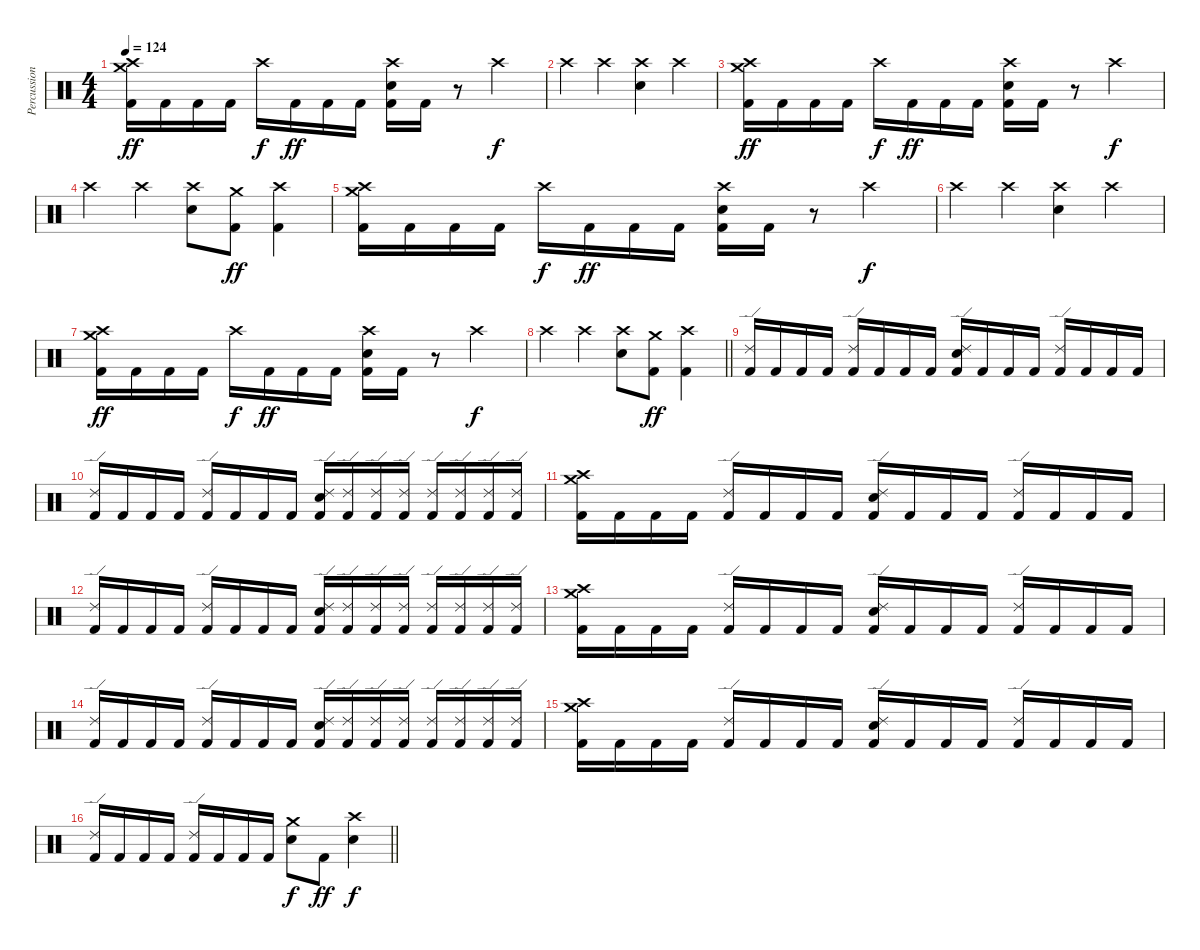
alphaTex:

\track ("Percussion" "Percussion") {instrument percussion}
\staff {score}
\articulation defaults
\ts (4 4)
\tempo 124
\clef neutral
\ks c
("Crash medium (hit)" "Crash high (hit)" "Kick (hit) 2").16{dy ff} "Kick (hit) 2".16 "Kick (hit) 2".16 "Kick (hit) 2".16 "Crash high (hit)".16{dy f} "Kick (hit) 2".16{dy ff} "Kick (hit) 2".16 "Kick (hit) 2".16 ("Crash high (hit)" "Electric Snare (hit)" "Kick (hit) 2").16 "Kick (hit) 2".16 r.8 "Crash high (hit)".4{dy f} |
"Crash high (hit)".4 "Crash high (hit)".4 ("Crash high (hit)" "Electric Snare (hit)").4 "Crash high (hit)".4 |
("Crash medium (hit)" "Crash high (hit)" "Kick (hit) 2").16{dy ff} "Kick (hit) 2".16 "Kick (hit) 2".16 "Kick (hit) 2".16 "Crash high (hit)".16{dy f} "Kick (hit) 2".16{dy ff} "Kick (hit) 2".16 "Kick (hit) 2".16 ("Crash high (hit)" "Electric Snare (hit)" "Kick (hit) 2").16 "Kick (hit) 2".16 r.8 "Crash high (hit)".4{dy f} |
"Crash high (hit)".4 "Crash high (hit)".4 ("Crash high (hit)" "Electric Snare (hit)").8 ("Crash medium (hit)" "Kick (hit) 2").8{dy ff} ("Crash high (hit)" "Kick (hit) 2").4 |
("Crash medium (hit)" "Crash high (hit)" "Kick (hit) 2").16 "Kick (hit) 2".16 "Kick (hit) 2".16 "Kick (hit) 2".16 "Crash high (hit)".16{dy f} "Kick (hit) 2".16{dy ff} "Kick (hit) 2".16 "Kick (hit) 2".16 ("Crash high (hit)" "Electric Snare (hit)" "Kick (hit) 2").16 "Kick (hit) 2".16 r.8 "Crash high (hit)".4{dy f} |
"Crash high (hit)".4 "Crash high (hit)".4 ("Crash high (hit)" "Electric Snare (hit)").4 "Crash high (hit)".4 |
("Crash medium (hit)" "Crash high (hit)" "Kick (hit) 2").16{dy ff} "Kick (hit) 2".16 "Kick (hit) 2".16 "Kick (hit) 2".16 "Crash high (hit)".16{dy f} "Kick (hit) 2".16{dy ff} "Kick (hit) 2".16 "Kick (hit) 2".16 ("Crash high (hit)" "Electric Snare (hit)" "Kick (hit) 2").16 "Kick (hit) 2".16 r.8 "Crash high (hit)".4{dy f} |
\barLineRight lightlight "Crash high (hit)".4 "Crash high (hit)".4
("Crash high (hit)" "Electric Snare (hit)").8 ("Crash medium (hit)" "Kick (hit) 2").8{dy ff} ("Crash high (hit)" "Kick (hit) 2").4 |
("Ride (edge) 2" "Kick (hit) 2").16 "Kick (hit) 2".16 "Kick (hit) 2".16 "Kick (hit) 2".16 ("Ride (edge) 2" "Kick (hit) 2").16 "Kick (hit) 2".16 "Kick (hit) 2".16 "Kick (hit) 2".16 ("Ride (edge) 2" "Electric Snare (hit)" "Kick (hit) 2").16 "Kick (hit) 2".16 "Kick (hit) 2".16 "Kick (hit) 2".16 ("Ride (edge) 2" "Kick (hit) 2").16 "Kick (hit) 2".16 "Kick (hit) 2".16 "Kick (hit) 2".16 |
("Ride (edge) 2" "Kick (hit) 2").16 "Kick (hit) 2".16 "Kick (hit) 2".16 "Kick (hit) 2".16 ("Ride (edge) 2" "Kick (hit) 2").16 "Kick (hit) 2".16 "Kick (hit) 2".16 "Kick (hit) 2".16 ("Ride (edge) 2" "Electric Snare (hit)" "Kick (hit) 2").16 ("Ride (edge) 2" "Kick (hit) 2").16 ("Ride (edge) 2" "Kick (hit) 2").16 ("Ride (edge) 2" "Kick (hit) 2").16 ("Ride (edge) 2" "Kick (hit) 2").16 ("Ride (edge) 2" "Kick (hit) 2").16 ("Ride (edge) 2" "Kick (hit) 2").16 ("Ride (edge) 2" "Kick (hit) 2").16 |
("Crash medium (hit)" "Crash high (hit)" "Kick (hit) 2").16 "Kick (hit) 2".16 "Kick (hit) 2".16 "Kick (hit) 2".16 ("Ride (edge) 2" "Kick (hit) 2").16 "Kick (hit) 2".16 "Kick (hit) 2".16 "Kick (hit) 2".16 ("Ride (edge) 2" "Electric Snare (hit)" "Kick (hit) 2").16 "Kick (hit) 2".16 "Kick (hit) 2".16 "Kick (hit) 2".16 ("Ride (edge) 2" "Kick (hit) 2").16 "Kick (hit) 2".16 "Kick (hit) 2".16 "Kick (hit) 2".16 |
("Ride (edge) 2" "Kick (hit) 2").16 "Kick (hit) 2".16 "Kick (hit) 2".16 "Kick (hit) 2".16 ("Ride (edge) 2" "Kick (hit) 2").16 "Kick (hit) 2".16 "Kick (hit) 2".16 "Kick (hit) 2".16 ("Ride (edge) 2" "Electric Snare (hit)" "Kick (hit) 2").16 ("Ride (edge) 2" "Kick (hit) 2").16 ("Ride (edge) 2" "Kick (hit) 2").16 ("Ride (edge) 2" "Kick (hit) 2").16 ("Ride (edge) 2" "Kick (hit) 2").16 ("Ride (edge) 2" "Kick (hit) 2").16 ("Ride (edge) 2" "Kick (hit) 2").16 ("Ride (edge) 2" "Kick (hit) 2").16 |
("Crash medium (hit)" "Crash high (hit)" "Kick (hit) 2").16 "Kick (hit) 2".16 "Kick (hit) 2".16 "Kick (hit) 2".16 ("Ride (edge) 2" "Kick (hit) 2").16 "Kick (hit) 2".16 "Kick (hit) 2".16 "Kick (hit) 2".16 ("Ride (edge) 2" "Electric Snare (hit)" "Kick (hit) 2").16 "Kick (hit) 2".16 "Kick (hit) 2".16 "Kick (hit) 2".16 ("Ride (edge) 2" "Kick (hit) 2").16 "Kick (hit) 2".16 "Kick (hit) 2".16 "Kick (hit) 2".16 |
("Ride (edge) 2" "Kick (hit) 2").16 "Kick (hit) 2".16 "Kick (hit) 2".16 "Kick (hit) 2".16 ("Ride (edge) 2" "Kick (hit) 2").16 "Kick (hit) 2".16 "Kick (hit) 2".16 "Kick (hit) 2".16 ("Ride (edge) 2" "Electric Snare (hit)" "Kick (hit) 2").16 ("Ride (edge) 2" "Kick (hit) 2").16 ("Ride (edge) 2" "Kick (hit) 2").16 ("Ride (edge) 2" "Kick (hit) 2").16 ("Ride (edge) 2" "Kick (hit) 2").16 ("Ride (edge) 2" "Kick (hit) 2").16 ("Ride (edge) 2" "Kick (hit) 2").16 ("Ride (edge) 2" "Kick (hit) 2").16 |
("Crash medium (hit)" "Crash high (hit)" "Kick (hit) 2").16 "Kick (hit) 2".16 "Kick (hit) 2".16 "Kick (hit) 2".16 ("Ride (edge) 2" "Kick (hit) 2").16 "Kick (hit) 2".16 "Kick (hit) 2".16 "Kick (hit) 2".16 ("Ride (edge) 2" "Electric Snare (hit)" "Kick (hit) 2").16 "Kick (hit) 2".16 "Kick (hit) 2".16 "Kick (hit) 2".16 ("Ride (edge) 2" "Kick (hit) 2").16 "Kick (hit) 2".16 "Kick (hit) 2".16 "Kick (hit) 2".16 |
\barLineRight lightlight
("Ride (edge) 2" "Kick (hit) 2").16 "Kick (hit) 2".16 "Kick (hit) 2".16 "Kick (hit) 2".16 ("Ride (edge) 2" "Kick (hit) 2").16 "Kick (hit) 2".16 "Kick (hit) 2".16 "Kick (hit) 2".16 ("Crash medium (hit)" "Electric Snare (hit)").8{dy f} "Kick (hit) 2".8{dy ff} ("Crash high (hit)" "Electric Snare (hit)").4{dy f}
